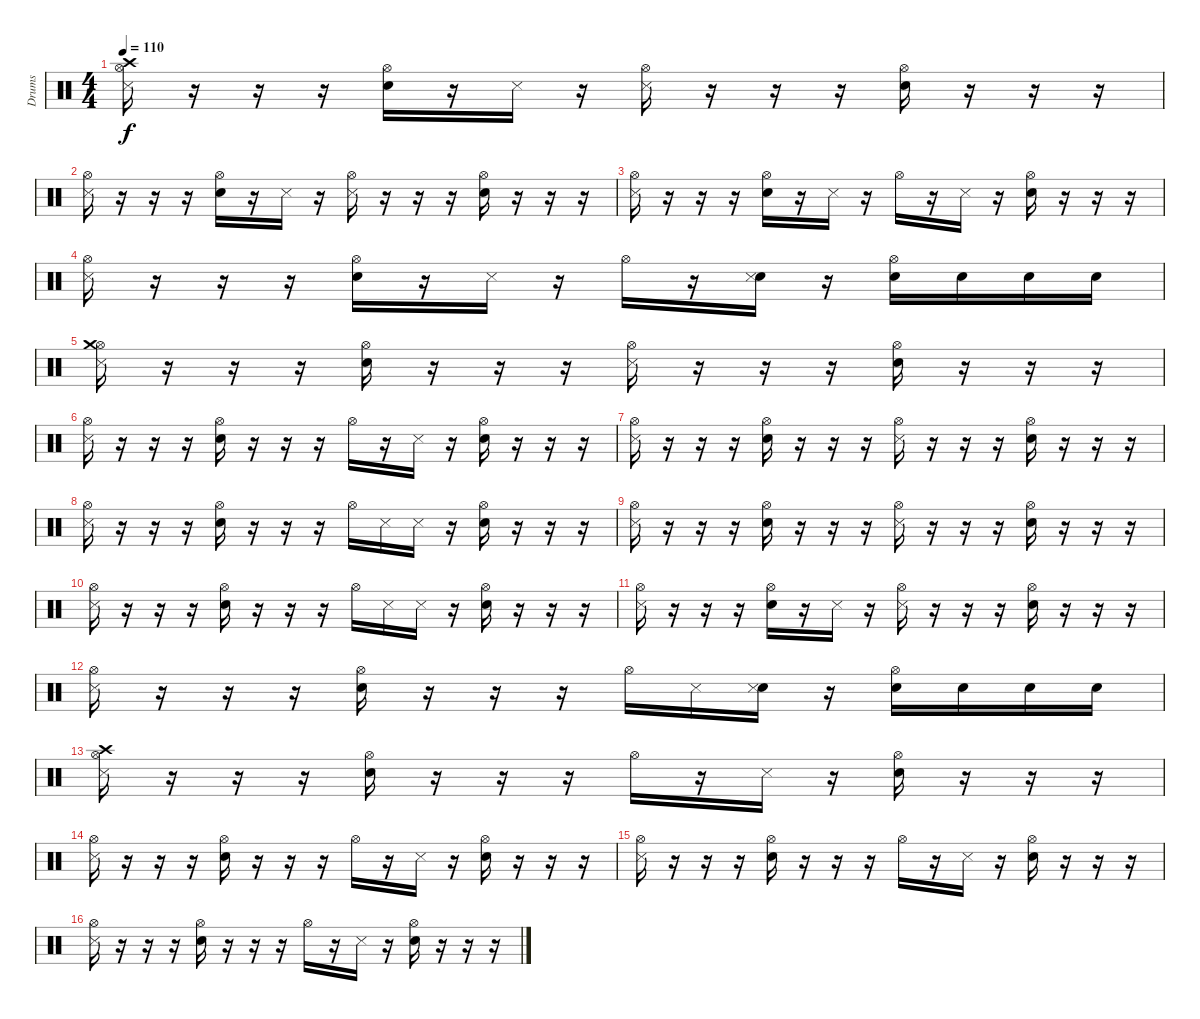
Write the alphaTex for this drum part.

\track ("Drums" "Drums") {instrument percussion}
\staff {score}
\articulation defaults
\ts (4 4)
\tempo 110
\clef neutral
\ks c
("Hi-Hat (open)" "Crash high (hit)" "Metronome (hit)").16{dy f} r.16 r.16 r.16 ("Hi-Hat (open)" "Electric Snare (hit)").16 r.16 "Metronome (hit)".16 r.16 ("Hi-Hat (open)" "Metronome (hit)").16 r.16 r.16 r.16 ("Hi-Hat (open)" "Electric Snare (hit)").16 r.16 r.16 r.16 |
("Hi-Hat (open)" "Metronome (hit)").16 r.16 r.16 r.16 ("Hi-Hat (open)" "Electric Snare (hit)").16 r.16 "Metronome (hit)".16 r.16 ("Hi-Hat (open)" "Metronome (hit)").16 r.16 r.16 r.16 ("Hi-Hat (open)" "Electric Snare (hit)").16 r.16 r.16 r.16 |
("Hi-Hat (open)" "Metronome (hit)").16 r.16 r.16 r.16 ("Hi-Hat (open)" "Electric Snare (hit)").16 r.16 "Metronome (hit)".16 r.16 "Hi-Hat (open)".16 r.16 "Metronome (hit)".16 r.16 ("Hi-Hat (open)" "Electric Snare (hit)").16 r.16 r.16 r.16 |
("Hi-Hat (open)" "Metronome (hit)").16 r.16 r.16 r.16 ("Hi-Hat (open)" "Electric Snare (hit)").16 r.16 "Metronome (hit)".16 r.16 "Hi-Hat (open)".16 r.16 ("Electric Snare (hit)" "Metronome (hit)").16 r.16 ("Hi-Hat (open)" "Electric Snare (hit)").16 "Electric Snare (hit)".16 "Electric Snare (hit)".16 "Electric Snare (hit)".16 |
("Hi-Hat (open)" "Crash medium (hit)" "Metronome (hit)").16 r.16 r.16 r.16 ("Hi-Hat (open)" "Electric Snare (hit)").16 r.16 r.16 r.16 ("Hi-Hat (open)" "Metronome (hit)").16 r.16 r.16 r.16 ("Hi-Hat (open)" "Electric Snare (hit)").16 r.16 r.16 r.16 |
("Hi-Hat (open)" "Metronome (hit)").16 r.16 r.16 r.16 ("Hi-Hat (open)" "Electric Snare (hit)").16 r.16 r.16 r.16 "Hi-Hat (open)".16 r.16 "Metronome (hit)".16 r.16 ("Hi-Hat (open)" "Electric Snare (hit)").16 r.16 r.16 r.16 |
("Hi-Hat (open)" "Metronome (hit)").16 r.16 r.16 r.16 ("Hi-Hat (open)" "Electric Snare (hit)").16 r.16 r.16 r.16 ("Hi-Hat (open)" "Metronome (hit)").16 r.16 r.16 r.16 ("Hi-Hat (open)" "Electric Snare (hit)").16 r.16 r.16 r.16 |
("Hi-Hat (open)" "Metronome (hit)").16 r.16 r.16 r.16 ("Hi-Hat (open)" "Electric Snare (hit)").16 r.16 r.16 r.16 "Hi-Hat (open)".16 "Metronome (hit)".16 "Metronome (hit)".16 r.16 ("Hi-Hat (open)" "Electric Snare (hit)").16 r.16 r.16 r.16 |
("Hi-Hat (open)" "Metronome (hit)").16 r.16 r.16 r.16 ("Hi-Hat (open)" "Electric Snare (hit)").16 r.16 r.16 r.16 ("Hi-Hat (open)" "Metronome (hit)").16 r.16 r.16 r.16 ("Hi-Hat (open)" "Electric Snare (hit)").16 r.16 r.16 r.16 |
("Hi-Hat (open)" "Metronome (hit)").16 r.16 r.16 r.16 ("Hi-Hat (open)" "Electric Snare (hit)").16 r.16 r.16 r.16 "Hi-Hat (open)".16 "Metronome (hit)".16 "Metronome (hit)".16 r.16 ("Hi-Hat (open)" "Electric Snare (hit)").16 r.16 r.16 r.16 |
("Hi-Hat (open)" "Metronome (hit)").16 r.16 r.16 r.16 ("Hi-Hat (open)" "Electric Snare (hit)").16 r.16 "Metronome (hit)".16 r.16 ("Hi-Hat (open)" "Metronome (hit)").16 r.16 r.16 r.16 ("Hi-Hat (open)" "Electric Snare (hit)").16 r.16 r.16 r.16 |
("Hi-Hat (open)" "Metronome (hit)").16 r.16 r.16 r.16 ("Hi-Hat (open)" "Electric Snare (hit)").16 r.16 r.16 r.16 "Hi-Hat (open)".16 "Metronome (hit)".16 ("Electric Snare (hit)" "Metronome (hit)").16 r.16 ("Hi-Hat (open)" "Electric Snare (hit)").16 "Electric Snare (hit)".16 "Electric Snare (hit)".16 "Electric Snare (hit)".16 |
("Hi-Hat (open)" "Crash high (hit)" "Metronome (hit)").16 r.16 r.16 r.16 ("Hi-Hat (open)" "Electric Snare (hit)").16 r.16 r.16 r.16 "Hi-Hat (open)".16 r.16 "Metronome (hit)".16 r.16 ("Hi-Hat (open)" "Electric Snare (hit)").16 r.16 r.16 r.16 |
("Hi-Hat (open)" "Metronome (hit)").16 r.16 r.16 r.16 ("Hi-Hat (open)" "Electric Snare (hit)").16 r.16 r.16 r.16 "Hi-Hat (open)".16 r.16 "Metronome (hit)".16 r.16 ("Hi-Hat (open)" "Electric Snare (hit)").16 r.16 r.16 r.16 |
("Hi-Hat (open)" "Metronome (hit)").16 r.16 r.16 r.16 ("Hi-Hat (open)" "Electric Snare (hit)").16 r.16 r.16 r.16 "Hi-Hat (open)".16 r.16 "Metronome (hit)".16 r.16 ("Hi-Hat (open)" "Electric Snare (hit)").16 r.16 r.16 r.16 |
("Hi-Hat (open)" "Metronome (hit)").16 r.16 r.16 r.16 ("Hi-Hat (open)" "Electric Snare (hit)").16 r.16 r.16 r.16 "Hi-Hat (open)".16 r.16 "Metronome (hit)".16 r.16 ("Hi-Hat (open)" "Electric Snare (hit)").16 r.16 r.16 r.16
